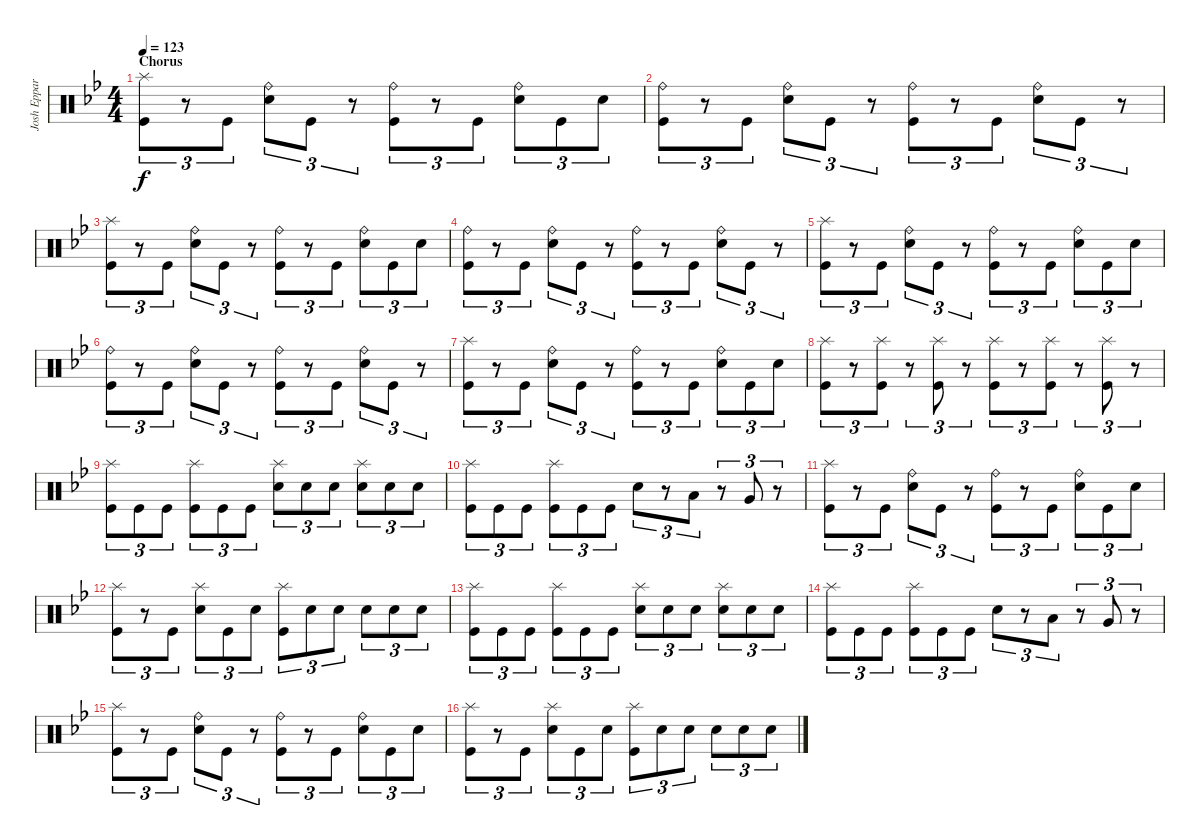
\track ("Josh Eppard" "Josh Eppar") {instrument percussion}
\staff {score}
\articulation defaults
\ts (4 4)
\section ("" "Chorus")
\tempo 123
\clef neutral
\ks gminor
("Splash (hit)" "Kick (hit)").8{tu (3 2) dy f} r.8{tu (3 2)} "Kick (hit)".8{tu (3 2)} ("Snare (hit) 2" "Ride (bell)").8{tu (3 2)} "Kick (hit)".8{tu (3 2)} r.8{tu (3 2)} ("Kick (hit)" "Ride (bell)").8{tu (3 2)} r.8{tu (3 2)} "Kick (hit)".8{tu (3 2)} ("Ride (bell)" "Snare (hit) 2").8{tu (3 2)} "Kick (hit)".8{tu (3 2)} "Snare (hit) 2".8{tu (3 2)} |
("Ride (bell)" "Kick (hit)").8{tu (3 2)} r.8{tu (3 2)} "Kick (hit)".8{tu (3 2)} ("Snare (hit) 2" "Ride (bell)").8{tu (3 2)} "Kick (hit)".8{tu (3 2)} r.8{tu (3 2)} ("Kick (hit)" "Ride (bell)").8{tu (3 2)} r.8{tu (3 2)} "Kick (hit)".8{tu (3 2)} ("Snare (hit) 2" "Ride (bell)").8{tu (3 2)} "Kick (hit)".8{tu (3 2)} r.8{tu (3 2)} |
("Splash (hit)" "Kick (hit)").8{tu (3 2)} r.8{tu (3 2)} "Kick (hit)".8{tu (3 2)} ("Snare (hit) 2" "Ride (bell)").8{tu (3 2)} "Kick (hit)".8{tu (3 2)} r.8{tu (3 2)} ("Kick (hit)" "Ride (bell)").8{tu (3 2)} r.8{tu (3 2)} "Kick (hit)".8{tu (3 2)} ("Ride (bell)" "Snare (hit) 2").8{tu (3 2)} "Kick (hit)".8{tu (3 2)} "Snare (hit) 2".8{tu (3 2)} |
("Ride (bell)" "Kick (hit)").8{tu (3 2)} r.8{tu (3 2)} "Kick (hit)".8{tu (3 2)} ("Snare (hit) 2" "Ride (bell)").8{tu (3 2)} "Kick (hit)".8{tu (3 2)} r.8{tu (3 2)} ("Kick (hit)" "Ride (bell)").8{tu (3 2)} r.8{tu (3 2)} "Kick (hit)".8{tu (3 2)} ("Snare (hit) 2" "Ride (bell)").8{tu (3 2)} "Kick (hit)".8{tu (3 2)} r.8{tu (3 2)} |
("Splash (hit)" "Kick (hit)").8{tu (3 2)} r.8{tu (3 2)} "Kick (hit)".8{tu (3 2)} ("Snare (hit) 2" "Ride (bell)").8{tu (3 2)} "Kick (hit)".8{tu (3 2)} r.8{tu (3 2)} ("Kick (hit)" "Ride (bell)").8{tu (3 2)} r.8{tu (3 2)} "Kick (hit)".8{tu (3 2)} ("Ride (bell)" "Snare (hit) 2").8{tu (3 2)} "Kick (hit)".8{tu (3 2)} "Snare (hit) 2".8{tu (3 2)} |
("Ride (bell)" "Kick (hit)").8{tu (3 2)} r.8{tu (3 2)} "Kick (hit)".8{tu (3 2)} ("Snare (hit) 2" "Ride (bell)").8{tu (3 2)} "Kick (hit)".8{tu (3 2)} r.8{tu (3 2)} ("Kick (hit)" "Ride (bell)").8{tu (3 2)} r.8{tu (3 2)} "Kick (hit)".8{tu (3 2)} ("Snare (hit) 2" "Ride (bell)").8{tu (3 2)} "Kick (hit)".8{tu (3 2)} r.8{tu (3 2)} |
("Splash (hit)" "Kick (hit)").8{tu (3 2)} r.8{tu (3 2)} "Kick (hit)".8{tu (3 2)} ("Snare (hit) 2" "Ride (bell)").8{tu (3 2)} "Kick (hit)".8{tu (3 2)} r.8{tu (3 2)} ("Kick (hit)" "Ride (bell)").8{tu (3 2)} r.8{tu (3 2)} "Kick (hit)".8{tu (3 2)} ("Ride (bell)" "Snare (hit) 2").8{tu (3 2)} "Kick (hit)".8{tu (3 2)} "Snare (hit) 2".8{tu (3 2)} |
("Kick (hit)" "Splash (hit)").8{tu (3 2)} r.8{tu (3 2)} ("Kick (hit)" "Splash (hit)").8{tu (3 2)} r.8{tu (3 2)} ("Kick (hit)" "Splash (hit)").8{tu (3 2)} r.8{tu (3 2)} ("Kick (hit)" "Splash (hit)").8{tu (3 2)} r.8{tu (3 2)} ("Kick (hit)" "Splash (hit)").8{tu (3 2)} r.8{tu (3 2)} ("Kick (hit)" "Splash (hit)").8{tu (3 2)} r.8{tu (3 2)} |
("Kick (hit)" "Splash (hit)").8{tu (3 2)} "Kick (hit)".8{tu (3 2)} "Kick (hit)".8{tu (3 2)} ("Kick (hit)" "Splash (hit)").8{tu (3 2)} "Kick (hit)".8{tu (3 2)} "Kick (hit)".8{tu (3 2)} ("Snare (hit) 2" "Splash (hit)").8{tu (3 2)} "Snare (hit) 2".8{tu (3 2)} "Snare (hit) 2".8{tu (3 2)} ("Snare (hit) 2" "Splash (hit)").8{tu (3 2)} "Snare (hit) 2".8{tu (3 2)} "Snare (hit) 2".8{tu (3 2)} |
("Kick (hit)" "Splash (hit)").8{tu (3 2)} "Kick (hit)".8{tu (3 2)} "Kick (hit)".8{tu (3 2)} ("Kick (hit)" "Splash (hit)").8{tu (3 2)} "Kick (hit)".8{tu (3 2)} "Kick (hit)".8{tu (3 2)} "Snare (hit) 2".8{tu (3 2)} r.8{tu (3 2)} "Low Tom (hit)".8{tu (3 2)} r.8{tu (3 2)} "Very Low Tom (hit)".8{tu (3 2)} r.8{tu (3 2)} |
("Splash (hit)" "Kick (hit)").8{tu (3 2)} r.8{tu (3 2)} "Kick (hit)".8{tu (3 2)} ("Snare (hit) 2" "Ride (bell)").8{tu (3 2)} "Kick (hit)".8{tu (3 2)} r.8{tu (3 2)} ("Kick (hit)" "Ride (bell)").8{tu (3 2)} r.8{tu (3 2)} "Kick (hit)".8{tu (3 2)} ("Ride (bell)" "Snare (hit) 2").8{tu (3 2)} "Kick (hit)".8{tu (3 2)} "Snare (hit) 2".8{tu (3 2)} |
("Splash (hit)" "Kick (hit)").8{tu (3 2)} r.8{tu (3 2)} "Kick (hit)".8{tu (3 2)} ("Snare (hit) 2" "Splash (hit)").8{tu (3 2)} "Kick (hit)".8{tu (3 2)} "Snare (hit) 2".8{tu (3 2)} ("Kick (hit)" "Splash (hit)").8{tu (3 2)} "Snare (hit) 2".8{tu (3 2)} "Snare (hit) 2".8{tu (3 2)} "Snare (hit) 2".8{tu (3 2)} "Snare (hit) 2".8{tu (3 2)} "Snare (hit) 2".8{tu (3 2)} |
("Kick (hit)" "Splash (hit)").8{tu (3 2)} "Kick (hit)".8{tu (3 2)} "Kick (hit)".8{tu (3 2)} ("Kick (hit)" "Splash (hit)").8{tu (3 2)} "Kick (hit)".8{tu (3 2)} "Kick (hit)".8{tu (3 2)} ("Snare (hit) 2" "Splash (hit)").8{tu (3 2)} "Snare (hit) 2".8{tu (3 2)} "Snare (hit) 2".8{tu (3 2)} ("Snare (hit) 2" "Splash (hit)").8{tu (3 2)} "Snare (hit) 2".8{tu (3 2)} "Snare (hit) 2".8{tu (3 2)} |
("Kick (hit)" "Splash (hit)").8{tu (3 2)} "Kick (hit)".8{tu (3 2)} "Kick (hit)".8{tu (3 2)} ("Kick (hit)" "Splash (hit)").8{tu (3 2)} "Kick (hit)".8{tu (3 2)} "Kick (hit)".8{tu (3 2)} "Snare (hit) 2".8{tu (3 2)} r.8{tu (3 2)} "Low Tom (hit)".8{tu (3 2)} r.8{tu (3 2)} "Very Low Tom (hit)".8{tu (3 2)} r.8{tu (3 2)} |
("Splash (hit)" "Kick (hit)").8{tu (3 2)} r.8{tu (3 2)} "Kick (hit)".8{tu (3 2)} ("Snare (hit) 2" "Ride (bell)").8{tu (3 2)} "Kick (hit)".8{tu (3 2)} r.8{tu (3 2)} ("Kick (hit)" "Ride (bell)").8{tu (3 2)} r.8{tu (3 2)} "Kick (hit)".8{tu (3 2)} ("Ride (bell)" "Snare (hit) 2").8{tu (3 2)} "Kick (hit)".8{tu (3 2)} "Snare (hit) 2".8{tu (3 2)} |
("Splash (hit)" "Kick (hit)").8{tu (3 2)} r.8{tu (3 2)} "Kick (hit)".8{tu (3 2)} ("Snare (hit) 2" "Splash (hit)").8{tu (3 2)} "Kick (hit)".8{tu (3 2)} "Snare (hit) 2".8{tu (3 2)} ("Kick (hit)" "Splash (hit)").8{tu (3 2)} "Snare (hit) 2".8{tu (3 2)} "Snare (hit) 2".8{tu (3 2)} "Snare (hit) 2".8{tu (3 2)} "Snare (hit) 2".8{tu (3 2)} "Snare (hit) 2".8{tu (3 2)}
